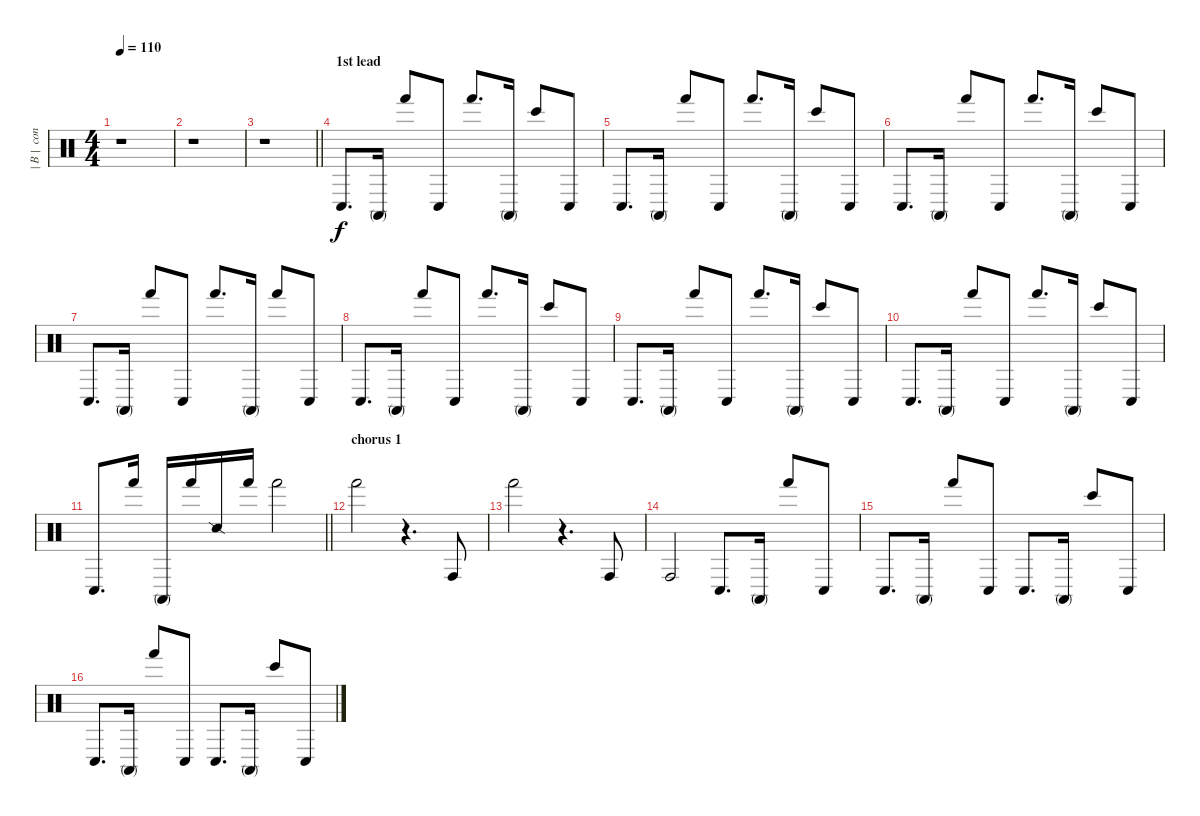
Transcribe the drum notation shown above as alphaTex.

\track ("| B |  conga" "| B |  con") {instrument percussion}
\staff {score}
\articulation defaults
\ts (4 4)
\tempo 110
\clef neutral
\ks c
r.1{dy f} |
r.1 |
\barLineRight lightlight
r.1 |
\section ("" "1st lead")
"Conga low (hit)".8{d} "Conga high (mute)".16 "Hand (hit)".8 "Conga low (hit)".8 "Hand (hit)".8{d} "Conga high (mute)".16 "Bongo High (hit)".8 "Conga low (hit)".8 |
"Conga low (hit)".8{d} "Conga high (mute)".16 "Hand (hit)".8 "Conga low (hit)".8 "Hand (hit)".8{d} "Conga high (mute)".16 "Bongo High (hit)".8 "Conga low (hit)".8 |
"Conga low (hit)".8{d} "Conga high (mute)".16 "Hand (hit)".8 "Conga low (hit)".8 "Hand (hit)".8{d} "Conga high (mute)".16 "Bongo High (hit)".8 "Conga low (hit)".8 |
"Conga low (hit)".8{d} "Conga high (mute)".16 "Hand (hit)".8 "Conga low (hit)".8 "Hand (hit)".8{d} "Conga high (mute)".16 "Hand (hit)".8 "Conga low (hit)".8 |
"Conga low (hit)".8{d} "Conga high (mute)".16 "Hand (hit)".8 "Conga low (hit)".8 "Hand (hit)".8{d} "Conga high (mute)".16 "Bongo High (hit)".8 "Conga low (hit)".8 |
"Conga low (hit)".8{d} "Conga high (mute)".16 "Hand (hit)".8 "Conga low (hit)".8 "Hand (hit)".8{d} "Conga high (mute)".16 "Bongo High (hit)".8 "Conga low (hit)".8 |
"Conga low (hit)".8{d} "Conga high (mute)".16 "Hand (hit)".8 "Conga low (hit)".8 "Hand (hit)".8{d} "Conga high (mute)".16 "Bongo High (hit)".8 "Conga low (hit)".8 |
\barLineRight lightlight "Conga low (hit)".8{d} "Hand (hit)".16 "Conga high (mute)".16 "Hand (hit)".16 "Snare (side stick) 2".16 "Hand (hit)".16 "Hand (hit)".2
|
\section ("" "chorus 1")
"Hand (hit)".2 r.4{d} "Conga high (hit)".8 |
"Hand (hit)".2 r.4{d} "Conga high (hit)".8 |
"Conga high (hit)".2 "Conga low (hit)".8{d} "Conga high (mute)".16 "Hand (hit)".8 "Conga low (hit)".8 |
"Conga low (hit)".8{d} "Conga high (mute)".16 "Hand (hit)".8 "Conga low (hit)".8 "Conga low (hit)".8{d} "Conga high (mute)".16 "Bongo High (hit)".8 "Conga low (hit)".8 |
"Conga low (hit)".8{d} "Conga high (mute)".16 "Hand (hit)".8 "Conga low (hit)".8 "Conga low (hit)".8{d} "Conga high (mute)".16 "Bongo High (hit)".8 "Conga low (hit)".8
